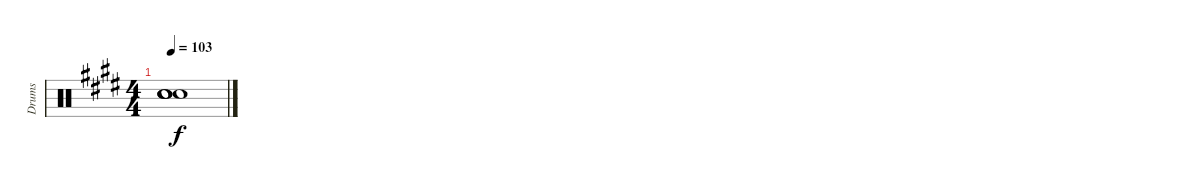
\track ("Drums" "Drums") {instrument percussion}
\staff {score}
\articulation defaults
\ts (4 4)
\tempo 103
\clef neutral
\ks c#minor
("Snare (hit)"{t} "Snare (hit)"{t} "Snare (hit)"{t} "Snare (hit)"{t}).1{dy f}
